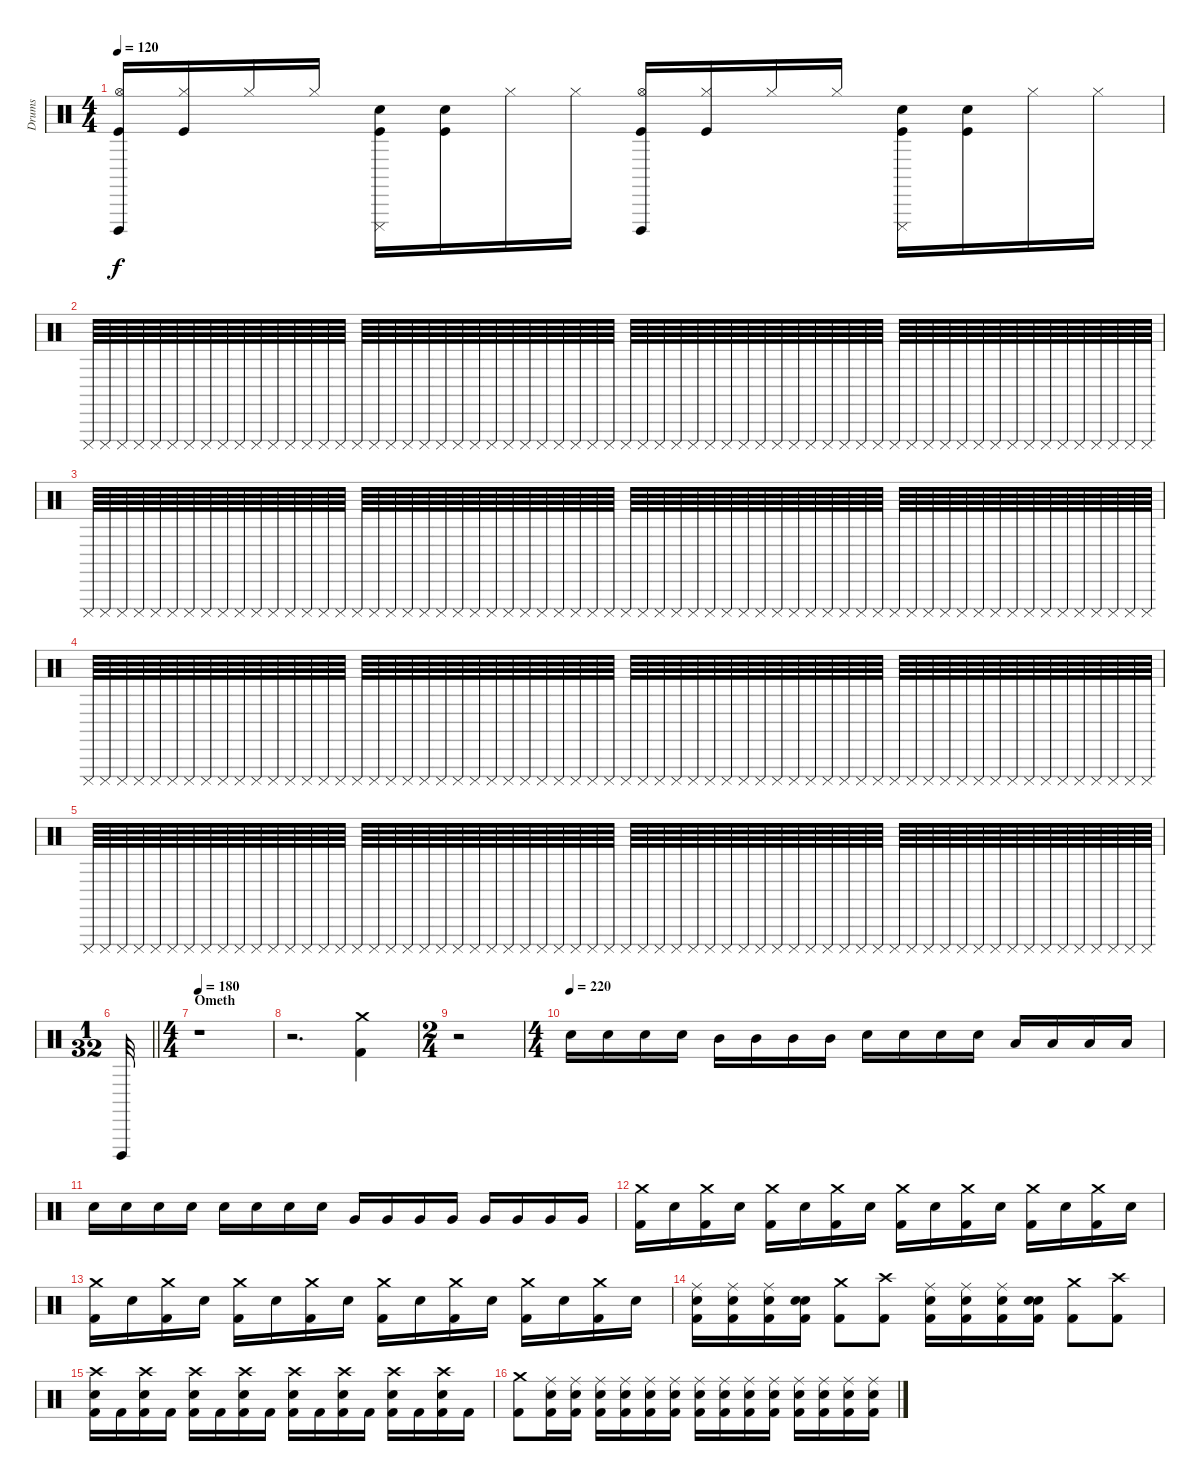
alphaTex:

\track ("Drums" "Drums") {instrument percussion}
\staff {score}
\articulation defaults
\ts (4 4)
\tempo 120
\clef neutral
\ks c
("Cuica (open)" "Hi-Hat (open)" "Kick (hit)").16{dy f} ("Hi-Hat (closed)" "Kick (hit)").16 "Hi-Hat (closed)".16 "Hi-Hat (closed)".16 ("Cuica (mute)" "Hand Clap (hit)" "Kick (hit)").16 ("Hand Clap (hit)" "Kick (hit)").16 "Hi-Hat (closed)".16 "Hi-Hat (closed)".16 ("Cuica (open)" "Hi-Hat (open)" "Kick (hit)").16 ("Hi-Hat (closed)" "Kick (hit)").16 "Hi-Hat (closed)".16 "Hi-Hat (closed)".16 ("Cuica (mute)" "Hand Clap (hit)" "Kick (hit)").16 ("Hand Clap (hit)" "Kick (hit)").16 "Hi-Hat (closed)".16 "Hi-Hat (closed)".16 |
"Cuica (mute)".64 "Cuica (mute)".64 "Cuica (mute)".64 "Cuica (mute)".64 "Cuica (mute)".64 "Cuica (mute)".64 "Cuica (mute)".64 "Cuica (mute)".64 "Cuica (mute)".64 "Cuica (mute)".64 "Cuica (mute)".64 "Cuica (mute)".64 "Cuica (mute)".64 "Cuica (mute)".64 "Cuica (mute)".64 "Cuica (mute)".64 "Cuica (mute)".64 "Cuica (mute)".64 "Cuica (mute)".64 "Cuica (mute)".64 "Cuica (mute)".64 "Cuica (mute)".64 "Cuica (mute)".64 "Cuica (mute)".64 "Cuica (mute)".64 "Cuica (mute)".64 "Cuica (mute)".64 "Cuica (mute)".64 "Cuica (mute)".64 "Cuica (mute)".64 "Cuica (mute)".64 "Cuica (mute)".64 "Cuica (mute)".64 "Cuica (mute)".64 "Cuica (mute)".64 "Cuica (mute)".64 "Cuica (mute)".64 "Cuica (mute)".64 "Cuica (mute)".64 "Cuica (mute)".64 "Cuica (mute)".64 "Cuica (mute)".64 "Cuica (mute)".64 "Cuica (mute)".64 "Cuica (mute)".64 "Cuica (mute)".64 "Cuica (mute)".64 "Cuica (mute)".64 "Cuica (mute)".64 "Cuica (mute)".64 "Cuica (mute)".64 "Cuica (mute)".64 "Cuica (mute)".64 "Cuica (mute)".64 "Cuica (mute)".64 "Cuica (mute)".64 "Cuica (mute)".64 "Cuica (mute)".64 "Cuica (mute)".64 "Cuica (mute)".64 "Cuica (mute)".64 "Cuica (mute)".64 "Cuica (mute)".64 "Cuica (mute)".64 |
"Cuica (mute)".64 "Cuica (mute)".64 "Cuica (mute)".64 "Cuica (mute)".64 "Cuica (mute)".64 "Cuica (mute)".64 "Cuica (mute)".64 "Cuica (mute)".64 "Cuica (mute)".64 "Cuica (mute)".64 "Cuica (mute)".64 "Cuica (mute)".64 "Cuica (mute)".64 "Cuica (mute)".64 "Cuica (mute)".64 "Cuica (mute)".64 "Cuica (mute)".64 "Cuica (mute)".64 "Cuica (mute)".64 "Cuica (mute)".64 "Cuica (mute)".64 "Cuica (mute)".64 "Cuica (mute)".64 "Cuica (mute)".64 "Cuica (mute)".64 "Cuica (mute)".64 "Cuica (mute)".64 "Cuica (mute)".64 "Cuica (mute)".64 "Cuica (mute)".64 "Cuica (mute)".64 "Cuica (mute)".64 "Cuica (mute)".64 "Cuica (mute)".64 "Cuica (mute)".64 "Cuica (mute)".64 "Cuica (mute)".64 "Cuica (mute)".64 "Cuica (mute)".64 "Cuica (mute)".64 "Cuica (mute)".64 "Cuica (mute)".64 "Cuica (mute)".64 "Cuica (mute)".64 "Cuica (mute)".64 "Cuica (mute)".64 "Cuica (mute)".64 "Cuica (mute)".64 "Cuica (mute)".64 "Cuica (mute)".64 "Cuica (mute)".64 "Cuica (mute)".64 "Cuica (mute)".64 "Cuica (mute)".64 "Cuica (mute)".64 "Cuica (mute)".64 "Cuica (mute)".64 "Cuica (mute)".64 "Cuica (mute)".64 "Cuica (mute)".64 "Cuica (mute)".64 "Cuica (mute)".64 "Cuica (mute)".64 "Cuica (mute)".64 |
"Cuica (mute)".64 "Cuica (mute)".64 "Cuica (mute)".64 "Cuica (mute)".64 "Cuica (mute)".64 "Cuica (mute)".64 "Cuica (mute)".64 "Cuica (mute)".64 "Cuica (mute)".64 "Cuica (mute)".64 "Cuica (mute)".64 "Cuica (mute)".64 "Cuica (mute)".64 "Cuica (mute)".64 "Cuica (mute)".64 "Cuica (mute)".64 "Cuica (mute)".64 "Cuica (mute)".64 "Cuica (mute)".64 "Cuica (mute)".64 "Cuica (mute)".64 "Cuica (mute)".64 "Cuica (mute)".64 "Cuica (mute)".64 "Cuica (mute)".64 "Cuica (mute)".64 "Cuica (mute)".64 "Cuica (mute)".64 "Cuica (mute)".64 "Cuica (mute)".64 "Cuica (mute)".64 "Cuica (mute)".64 "Cuica (mute)".64 "Cuica (mute)".64 "Cuica (mute)".64 "Cuica (mute)".64 "Cuica (mute)".64 "Cuica (mute)".64 "Cuica (mute)".64 "Cuica (mute)".64 "Cuica (mute)".64 "Cuica (mute)".64 "Cuica (mute)".64 "Cuica (mute)".64 "Cuica (mute)".64 "Cuica (mute)".64 "Cuica (mute)".64 "Cuica (mute)".64 "Cuica (mute)".64 "Cuica (mute)".64 "Cuica (mute)".64 "Cuica (mute)".64 "Cuica (mute)".64 "Cuica (mute)".64 "Cuica (mute)".64 "Cuica (mute)".64 "Cuica (mute)".64 "Cuica (mute)".64 "Cuica (mute)".64 "Cuica (mute)".64 "Cuica (mute)".64 "Cuica (mute)".64 "Cuica (mute)".64 "Cuica (mute)".64 |
"Cuica (mute)".64 "Cuica (mute)".64 "Cuica (mute)".64 "Cuica (mute)".64 "Cuica (mute)".64 "Cuica (mute)".64 "Cuica (mute)".64 "Cuica (mute)".64 "Cuica (mute)".64 "Cuica (mute)".64 "Cuica (mute)".64 "Cuica (mute)".64 "Cuica (mute)".64 "Cuica (mute)".64 "Cuica (mute)".64 "Cuica (mute)".64 "Cuica (mute)".64 "Cuica (mute)".64 "Cuica (mute)".64 "Cuica (mute)".64 "Cuica (mute)".64 "Cuica (mute)".64 "Cuica (mute)".64 "Cuica (mute)".64 "Cuica (mute)".64 "Cuica (mute)".64 "Cuica (mute)".64 "Cuica (mute)".64 "Cuica (mute)".64 "Cuica (mute)".64 "Cuica (mute)".64 "Cuica (mute)".64 "Cuica (mute)".64 "Cuica (mute)".64 "Cuica (mute)".64 "Cuica (mute)".64 "Cuica (mute)".64 "Cuica (mute)".64 "Cuica (mute)".64 "Cuica (mute)".64 "Cuica (mute)".64 "Cuica (mute)".64 "Cuica (mute)".64 "Cuica (mute)".64 "Cuica (mute)".64 "Cuica (mute)".64 "Cuica (mute)".64 "Cuica (mute)".64 "Cuica (mute)".64 "Cuica (mute)".64 "Cuica (mute)".64 "Cuica (mute)".64 "Cuica (mute)".64 "Cuica (mute)".64 "Cuica (mute)".64 "Cuica (mute)".64 "Cuica (mute)".64 "Cuica (mute)".64 "Cuica (mute)".64 "Cuica (mute)".64 "Cuica (mute)".64 "Cuica (mute)".64 "Cuica (mute)".64 "Cuica (mute)".64 |
\ts (1 32)
\barLineRight lightlight "Cuica (open)".32
|
\ts (4 4)
\section ("" "Ometh")
\tempo 180
r.1 |
r.2{d} ("Crash medium (hit)" "Kick (hit) 2").4 |
\ts (2 4)
r.2 |
\ts (4 4)
\tempo (220)
"Electric Snare (hit)".16 "Electric Snare (hit)".16 "Electric Snare (hit)".16 "Electric Snare (hit)".16 "Mid Tom (hit)".16 "Mid Tom (hit)".16 "Mid Tom (hit)".16 "Mid Tom (hit)".16 "Electric Snare (hit)".16 "Electric Snare (hit)".16 "Electric Snare (hit)".16 "Electric Snare (hit)".16 "Low Tom (hit)".16 "Low Tom (hit)".16 "Low Tom (hit)".16 "Low Tom (hit)".16 |
"Electric Snare (hit)".16 "Electric Snare (hit)".16 "Electric Snare (hit)".16 "Electric Snare (hit)".16 "Electric Snare (hit)".16 "Electric Snare (hit)".16 "Electric Snare (hit)".16 "Electric Snare (hit)".16 "Very Low Tom (hit)".16 "Very Low Tom (hit)".16 "Very Low Tom (hit)".16 "Very Low Tom (hit)".16 "Very Low Tom (hit)".16 "Very Low Tom (hit)".16 "Very Low Tom (hit)".16 "Very Low Tom (hit)".16 |
("Crash medium (hit)" "Kick (hit) 2").16 "Electric Snare (hit)".16 ("Crash medium (hit)" "Kick (hit) 2").16 "Electric Snare (hit)".16 ("Crash medium (hit)" "Kick (hit) 2").16 "Electric Snare (hit)".16 ("Crash medium (hit)" "Kick (hit) 2").16 "Electric Snare (hit)".16 ("Crash medium (hit)" "Kick (hit) 2").16 "Electric Snare (hit)".16 ("Crash medium (hit)" "Kick (hit) 2").16 "Electric Snare (hit)".16 ("Crash medium (hit)" "Kick (hit) 2").16 "Electric Snare (hit)".16 ("Crash medium (hit)" "Kick (hit) 2").16 "Electric Snare (hit)".16 |
("Crash medium (hit)" "Kick (hit) 2").16 "Electric Snare (hit)".16 ("Crash medium (hit)" "Kick (hit) 2").16 "Electric Snare (hit)".16 ("Crash medium (hit)" "Kick (hit) 2").16 "Electric Snare (hit)".16 ("Crash medium (hit)" "Kick (hit) 2").16 "Electric Snare (hit)".16 ("Crash medium (hit)" "Kick (hit) 2").16 "Electric Snare (hit)".16 ("Crash medium (hit)" "Kick (hit) 2").16 "Electric Snare (hit)".16 ("Crash medium (hit)" "Kick (hit) 2").16 "Electric Snare (hit)".16 ("Crash medium (hit)" "Kick (hit) 2").16 "Electric Snare (hit)".16 |
("Ride (middle)" "Electric Snare (hit)" "Kick (hit) 2").16 ("Ride (middle)" "Electric Snare (hit)" "Kick (hit) 2").16 ("Ride (middle)" "Electric Snare (hit)" "Kick (hit) 2").16 ("Snare (hit)" "Electric Snare (hit)" "Kick (hit) 2").16 ("Crash medium (hit)" "Kick (hit) 2").8 ("Crash high (hit)" "Kick (hit) 2").8 ("Ride (middle)" "Electric Snare (hit)" "Kick (hit) 2").16 ("Ride (middle)" "Electric Snare (hit)" "Kick (hit) 2").16 ("Ride (middle)" "Electric Snare (hit)" "Kick (hit) 2").16 ("Snare (hit)" "Electric Snare (hit)" "Kick (hit) 2").16 ("Crash medium (hit)" "Kick (hit) 2").8 ("Crash high (hit)" "Kick (hit) 2").8 |
("Crash high (hit)" "Electric Snare (hit)" "Kick (hit) 2").16 "Kick (hit) 2".16 ("Crash high (hit)" "Electric Snare (hit)" "Kick (hit) 2").16 "Kick (hit) 2".16 ("Crash high (hit)" "Electric Snare (hit)" "Kick (hit) 2").16 "Kick (hit) 2".16 ("Crash high (hit)" "Electric Snare (hit)" "Kick (hit) 2").16 "Kick (hit) 2".16 ("Crash high (hit)" "Electric Snare (hit)" "Kick (hit) 2").16 "Kick (hit) 2".16 ("Crash high (hit)" "Electric Snare (hit)" "Kick (hit) 2").16 "Kick (hit) 2".16 ("Crash high (hit)" "Electric Snare (hit)" "Kick (hit) 2").16 "Kick (hit) 2".16 ("Crash high (hit)" "Electric Snare (hit)" "Kick (hit) 2").16 "Kick (hit) 2".16 |
("Crash medium (hit)" "Kick (hit) 2").8 ("Ride (middle)" "Electric Snare (hit)" "Kick (hit) 2").16 ("Ride (middle)" "Electric Snare (hit)" "Kick (hit) 2").16 ("Ride (middle)" "Electric Snare (hit)" "Kick (hit) 2").16 ("Ride (middle)" "Electric Snare (hit)" "Kick (hit) 2").16 ("Ride (middle)" "Electric Snare (hit)" "Kick (hit) 2").16 ("Ride (middle)" "Electric Snare (hit)" "Kick (hit) 2").16 ("Ride (middle)" "Electric Snare (hit)" "Kick (hit) 2").16 ("Ride (middle)" "Electric Snare (hit)" "Kick (hit) 2").16 ("Ride (middle)" "Electric Snare (hit)" "Kick (hit) 2").16 ("Ride (middle)" "Electric Snare (hit)" "Kick (hit) 2").16 ("Ride (middle)" "Electric Snare (hit)" "Kick (hit) 2").16 ("Ride (middle)" "Electric Snare (hit)" "Kick (hit) 2").16 ("Ride (middle)" "Electric Snare (hit)" "Kick (hit) 2").16 ("Ride (middle)" "Electric Snare (hit)" "Kick (hit) 2").16
